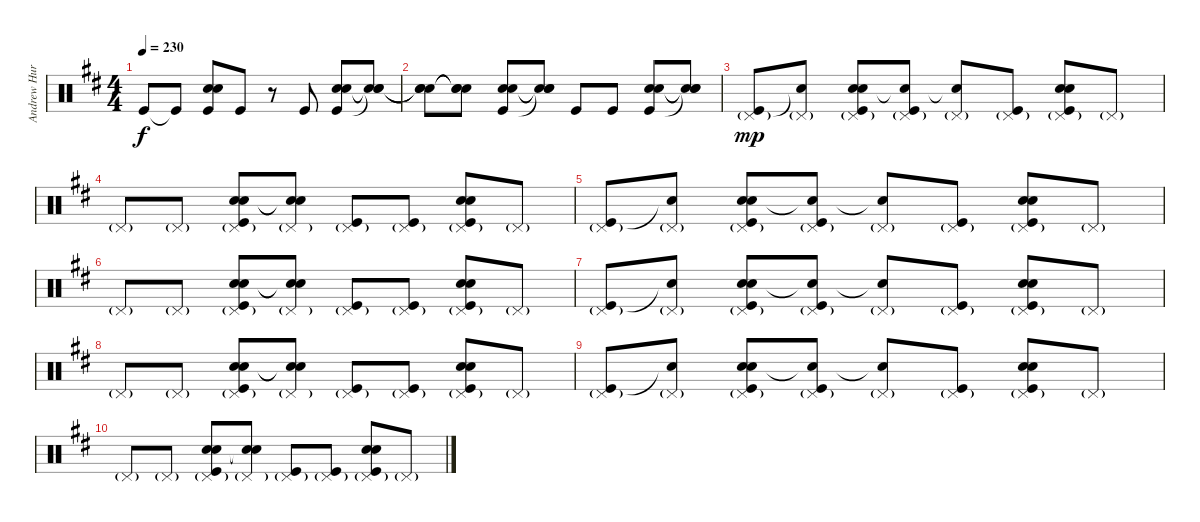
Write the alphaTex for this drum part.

\track ("Andrew Hurley" "Andrew Hur") {instrument percussion}
\staff {score}
\articulation defaults
\ts (4 4)
\tempo 230
\clef neutral
\ks d "Kick (hit)".8{dy f} "Kick (hit)"{t}.8
("Kick (hit)" "Snare (hit) 2" "Electric Snare (hit)").8 "Kick (hit)".8 r.8 "Kick (hit)".8 ("Electric Snare (hit)" "Snare (hit) 2" "Kick (hit)").8 ("Snare (hit)"{t} "Snare (hit)"{t} "Snare (hit)"{t}).8 |
("Snare (hit)"{t} "Snare (hit)"{t} "Snare (hit)"{t}).8 ("Snare (hit)"{t} "Snare (hit)"{t} "Snare (hit)"{t}).8 ("Electric Snare (hit)" "Snare (hit) 2" "Kick (hit)").8 ("Snare (hit)"{t} "Snare (hit)"{t} "Snare (hit)"{t}).8 "Kick (hit)".8 "Kick (hit)".8 ("Electric Snare (hit)" "Snare (hit) 2" "Kick (hit)").8 ("Snare (hit)"{t} "Snare (hit)"{t} "Snare (hit)"{t}).8 |
("Pedal Hi-Hat (hit)"{g} "Kick (hit)").8{dy mp} ("Pedal Hi-Hat (hit)"{g} "Snare (hit)"{t}).8 ("Pedal Hi-Hat (hit)"{g} "Snare (hit) 2" "Electric Snare (hit)" "Kick (hit)").8 ("Pedal Hi-Hat (hit)"{g} "Snare (hit)"{t} "Kick (hit)").8 ("Pedal Hi-Hat (hit)"{g} "Snare (hit)"{t}).8 ("Pedal Hi-Hat (hit)"{g} "Kick (hit)").8 ("Pedal Hi-Hat (hit)"{g} "Snare (hit) 2" "Electric Snare (hit)" "Kick (hit)").8 "Pedal Hi-Hat (hit)"{g}.8 |
"Pedal Hi-Hat (hit)"{g}.8 "Pedal Hi-Hat (hit)"{g}.8 ("Pedal Hi-Hat (hit)"{g} "Snare (hit) 2" "Electric Snare (hit)" "Kick (hit)").8 ("Pedal Hi-Hat (hit)"{g} "Snare (hit)"{t} "Snare (hit)"{t}).8 ("Pedal Hi-Hat (hit)"{g} "Kick (hit)").8 ("Pedal Hi-Hat (hit)"{g} "Kick (hit)").8 ("Pedal Hi-Hat (hit)"{g} "Snare (hit) 2" "Electric Snare (hit)" "Kick (hit)").8 "Pedal Hi-Hat (hit)"{g}.8 |
("Pedal Hi-Hat (hit)"{g} "Kick (hit)").8 ("Pedal Hi-Hat (hit)"{g} "Snare (hit)"{t}).8 ("Pedal Hi-Hat (hit)"{g} "Snare (hit) 2" "Electric Snare (hit)" "Kick (hit)").8 ("Pedal Hi-Hat (hit)"{g} "Snare (hit)"{t} "Kick (hit)").8 ("Pedal Hi-Hat (hit)"{g} "Snare (hit)"{t}).8 ("Pedal Hi-Hat (hit)"{g} "Kick (hit)").8 ("Pedal Hi-Hat (hit)"{g} "Snare (hit) 2" "Electric Snare (hit)" "Kick (hit)").8 "Pedal Hi-Hat (hit)"{g}.8 |
"Pedal Hi-Hat (hit)"{g}.8 "Pedal Hi-Hat (hit)"{g}.8 ("Pedal Hi-Hat (hit)"{g} "Snare (hit) 2" "Electric Snare (hit)" "Kick (hit)").8 ("Pedal Hi-Hat (hit)"{g} "Snare (hit)"{t} "Snare (hit)"{t}).8 ("Pedal Hi-Hat (hit)"{g} "Kick (hit)").8 ("Pedal Hi-Hat (hit)"{g} "Kick (hit)").8 ("Pedal Hi-Hat (hit)"{g} "Snare (hit) 2" "Electric Snare (hit)" "Kick (hit)").8 "Pedal Hi-Hat (hit)"{g}.8 |
("Pedal Hi-Hat (hit)"{g} "Kick (hit)").8 ("Pedal Hi-Hat (hit)"{g} "Snare (hit)"{t}).8 ("Pedal Hi-Hat (hit)"{g} "Snare (hit) 2" "Electric Snare (hit)" "Kick (hit)").8 ("Pedal Hi-Hat (hit)"{g} "Snare (hit)"{t} "Kick (hit)").8 ("Pedal Hi-Hat (hit)"{g} "Snare (hit)"{t}).8 ("Pedal Hi-Hat (hit)"{g} "Kick (hit)").8 ("Pedal Hi-Hat (hit)"{g} "Snare (hit) 2" "Electric Snare (hit)" "Kick (hit)").8 "Pedal Hi-Hat (hit)"{g}.8 |
"Pedal Hi-Hat (hit)"{g}.8 "Pedal Hi-Hat (hit)"{g}.8 ("Pedal Hi-Hat (hit)"{g} "Snare (hit) 2" "Electric Snare (hit)" "Kick (hit)").8 ("Pedal Hi-Hat (hit)"{g} "Snare (hit)"{t} "Snare (hit)"{t}).8 ("Pedal Hi-Hat (hit)"{g} "Kick (hit)").8 ("Pedal Hi-Hat (hit)"{g} "Kick (hit)").8 ("Pedal Hi-Hat (hit)"{g} "Snare (hit) 2" "Electric Snare (hit)" "Kick (hit)").8 "Pedal Hi-Hat (hit)"{g}.8 |
("Pedal Hi-Hat (hit)"{g} "Kick (hit)").8 ("Pedal Hi-Hat (hit)"{g} "Snare (hit)"{t}).8 ("Pedal Hi-Hat (hit)"{g} "Snare (hit) 2" "Electric Snare (hit)" "Kick (hit)").8 ("Pedal Hi-Hat (hit)"{g} "Snare (hit)"{t} "Kick (hit)").8 ("Pedal Hi-Hat (hit)"{g} "Snare (hit)"{t}).8 ("Pedal Hi-Hat (hit)"{g} "Kick (hit)").8 ("Pedal Hi-Hat (hit)"{g} "Snare (hit) 2" "Electric Snare (hit)" "Kick (hit)").8 "Pedal Hi-Hat (hit)"{g}.8 |
"Pedal Hi-Hat (hit)"{g}.8 "Pedal Hi-Hat (hit)"{g}.8 ("Pedal Hi-Hat (hit)"{g} "Snare (hit) 2" "Electric Snare (hit)" "Kick (hit)").8 ("Pedal Hi-Hat (hit)"{g} "Snare (hit)"{t} "Snare (hit)"{t}).8 ("Pedal Hi-Hat (hit)"{g} "Kick (hit)").8 ("Pedal Hi-Hat (hit)"{g} "Kick (hit)").8 ("Pedal Hi-Hat (hit)"{g} "Snare (hit) 2" "Electric Snare (hit)" "Kick (hit)").8 "Pedal Hi-Hat (hit)"{g}.8
